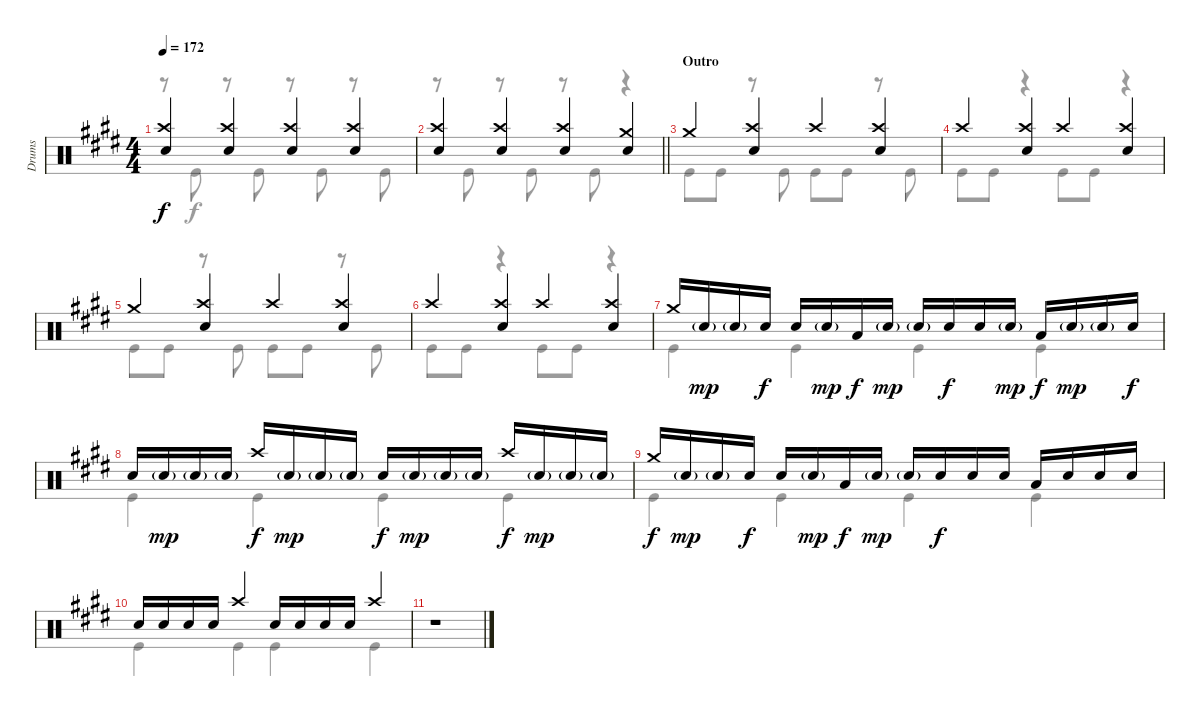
\track ("Drums" "Drums") {instrument percussion}
\staff {score}
\articulation defaults
\voice
\ts (4 4)
\tempo 172
\clef neutral
\ks e
("Crash high (hit)" "Electric Snare (hit)").4{dy f} ("Crash high (hit)" "Electric Snare (hit)").4 ("Crash high (hit)" "Electric Snare (hit)").4 ("Crash high (hit)" "Electric Snare (hit)").4 |
\barLineRight lightlight
("Crash high (hit)" "Electric Snare (hit)").4 ("Crash high (hit)" "Electric Snare (hit)").4 ("Crash high (hit)" "Electric Snare (hit)").4 ("Crash medium (hit)" "Electric Snare (hit)").4 |
\section ("" "Outro")
"Crash medium (hit)".4 ("Crash high (hit)" "Electric Snare (hit)").4 "Crash high (hit)".4 ("Crash high (hit)" "Electric Snare (hit)").4 |
"Crash high (hit)".4 ("Crash high (hit)" "Electric Snare (hit)").4 "Crash high (hit)".4 ("Crash high (hit)" "Electric Snare (hit)").4 |
"Crash medium (hit)".4 ("Crash high (hit)" "Electric Snare (hit)").4 "Crash high (hit)".4 ("Crash high (hit)" "Electric Snare (hit)").4 |
"Crash high (hit)".4 ("Crash high (hit)" "Electric Snare (hit)").4 "Crash high (hit)".4 ("Crash high (hit)" "Electric Snare (hit)").4 |
"Crash medium (hit)".16 "Electric Snare (hit)"{g}.16{dy mp} "Electric Snare (hit)"{g}.16 "Electric Snare (hit)".16{dy f} "Electric Snare (hit)".16 "Electric Snare (hit)"{g}.16{dy mp} "Low Tom (hit)".16{dy f} "Electric Snare (hit)"{g}.16{dy mp} "Electric Snare (hit)"{g}.16 "Electric Snare (hit)".16{dy f} "Electric Snare (hit)".16 "Electric Snare (hit)"{g}.16{dy mp} "Low Tom (hit)".16{dy f} "Electric Snare (hit)"{g}.16{dy mp} "Electric Snare (hit)"{g}.16 "Electric Snare (hit)".16{dy f} |
"Electric Snare (hit)".16 "Electric Snare (hit)"{g}.16{dy mp} "Electric Snare (hit)"{g}.16 "Electric Snare (hit)"{g}.16 "Crash high (hit)".16{dy f} "Electric Snare (hit)"{g}.16{dy mp} "Electric Snare (hit)"{g}.16 "Electric Snare (hit)"{g}.16 "Electric Snare (hit)".16{dy f} "Electric Snare (hit)"{g}.16{dy mp} "Electric Snare (hit)"{g}.16 "Electric Snare (hit)"{g}.16 "Crash high (hit)".16{dy f} "Electric Snare (hit)"{g}.16{dy mp} "Electric Snare (hit)"{g}.16 "Electric Snare (hit)"{g}.16 |
"Crash medium (hit)".16{dy f} "Electric Snare (hit)"{g}.16{dy mp} "Electric Snare (hit)"{g}.16 "Electric Snare (hit)".16{dy f} "Electric Snare (hit)".16 "Electric Snare (hit)"{g}.16{dy mp} "Low Tom (hit)".16{dy f} "Electric Snare (hit)"{g}.16{dy mp} "Electric Snare (hit)"{g}.16 "Electric Snare (hit)".16{dy f} "Electric Snare (hit)".16 "Electric Snare (hit)".16 "Low Tom (hit)".16 "Electric Snare (hit)".16 "Electric Snare (hit)".16 "Electric Snare (hit)".16 |
"Electric Snare (hit)".16 "Electric Snare (hit)".16 "Electric Snare (hit)".16 "Electric Snare (hit)".16 "Crash high (hit)".4 "Electric Snare (hit)".16 "Electric Snare (hit)".16 "Electric Snare (hit)".16 "Electric Snare (hit)".16 "Crash high (hit)".4 |
r.1
\voice
\clef neutral
\ottava regular
\simile none
\ks e
r.8{dy f} "Kick (hit)".8 r.8 "Kick (hit)".8 r.8 "Kick (hit)".8 r.8 "Kick (hit)".8 |
\barLineRight lightlight
r.8 "Kick (hit)".8 r.8 "Kick (hit)".8 r.8 "Kick (hit)".8 r.4 |
"Kick (hit)".8 "Kick (hit)".8 r.8 "Kick (hit)".8 "Kick (hit)".8 "Kick (hit)".8 r.8 "Kick (hit)".8 |
"Kick (hit)".8 "Kick (hit)".8 r.4 "Kick (hit)".8 "Kick (hit)".8 r.4 |
"Kick (hit)".8 "Kick (hit)".8 r.8 "Kick (hit)".8 "Kick (hit)".8 "Kick (hit)".8 r.8 "Kick (hit)".8 |
"Kick (hit)".8 "Kick (hit)".8 r.4 "Kick (hit)".8 "Kick (hit)".8 r.4 |
"Kick (hit)".4 "Kick (hit)".4 "Kick (hit)".4 "Kick (hit)".4 |
"Kick (hit)".4 "Kick (hit)".4 "Kick (hit)".4 "Kick (hit)".4 |
"Kick (hit)".4 "Kick (hit)".4 "Kick (hit)".4 "Kick (hit)".4 |
"Kick (hit)".4 "Kick (hit)".4 "Kick (hit)".4 "Kick (hit)".4 |
r.1
